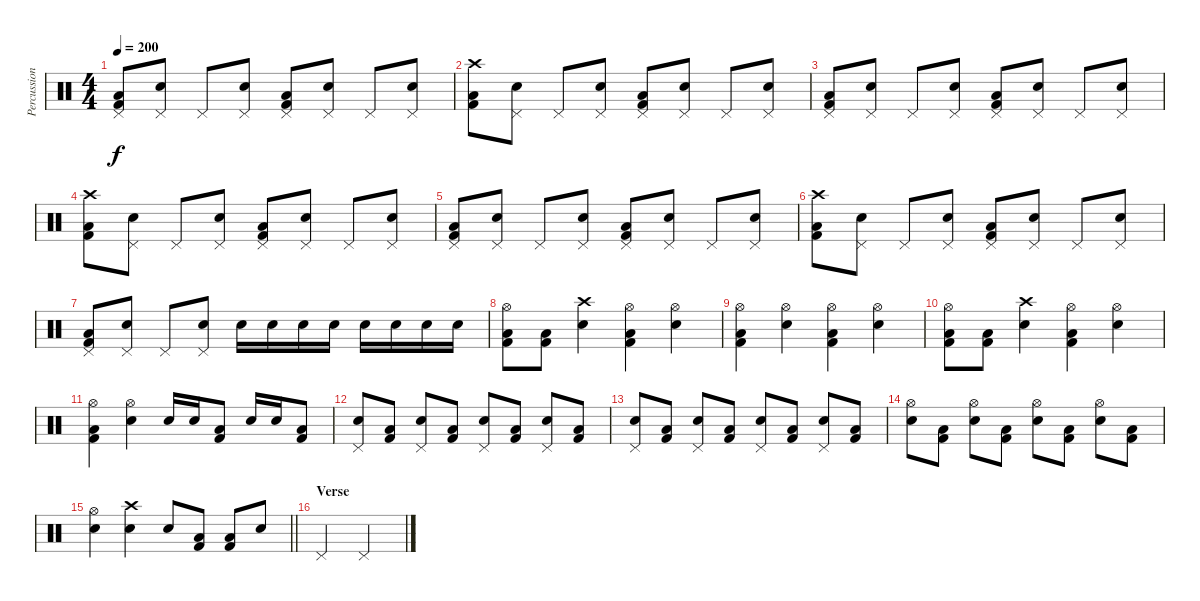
\track ("Percussion" "Percussion") {instrument percussion}
\staff {score}
\articulation defaults
\ts (4 4)
\tempo 200
\clef neutral
\ks c
("Kick (hit) 2" "Low Floor Tom (hit)" "Pedal Hi-Hat (hit)").8{dy f} ("Electric Snare (hit)" "Pedal Hi-Hat (hit)").8 "Pedal Hi-Hat (hit)".8 ("Electric Snare (hit)" "Pedal Hi-Hat (hit)").8 ("Kick (hit) 2" "Low Floor Tom (hit)" "Pedal Hi-Hat (hit)").8 ("Electric Snare (hit)" "Pedal Hi-Hat (hit)").8 "Pedal Hi-Hat (hit)".8 ("Electric Snare (hit)" "Pedal Hi-Hat (hit)").8 |
("Kick (hit) 2" "Low Floor Tom (hit)" "Crash high (hit)").8 ("Electric Snare (hit)" "Pedal Hi-Hat (hit)").8 "Pedal Hi-Hat (hit)".8 ("Electric Snare (hit)" "Pedal Hi-Hat (hit)").8 ("Kick (hit) 2" "Low Floor Tom (hit)" "Pedal Hi-Hat (hit)").8 ("Electric Snare (hit)" "Pedal Hi-Hat (hit)").8 "Pedal Hi-Hat (hit)".8 ("Electric Snare (hit)" "Pedal Hi-Hat (hit)").8 |
("Kick (hit) 2" "Low Floor Tom (hit)" "Pedal Hi-Hat (hit)").8 ("Electric Snare (hit)" "Pedal Hi-Hat (hit)").8 "Pedal Hi-Hat (hit)".8 ("Electric Snare (hit)" "Pedal Hi-Hat (hit)").8 ("Kick (hit) 2" "Low Floor Tom (hit)" "Pedal Hi-Hat (hit)").8 ("Electric Snare (hit)" "Pedal Hi-Hat (hit)").8 "Pedal Hi-Hat (hit)".8 ("Electric Snare (hit)" "Pedal Hi-Hat (hit)").8 |
("Kick (hit) 2" "Low Floor Tom (hit)" "Crash high (hit)").8 ("Electric Snare (hit)" "Pedal Hi-Hat (hit)").8 "Pedal Hi-Hat (hit)".8 ("Electric Snare (hit)" "Pedal Hi-Hat (hit)").8 ("Kick (hit) 2" "Low Floor Tom (hit)" "Pedal Hi-Hat (hit)").8 ("Electric Snare (hit)" "Pedal Hi-Hat (hit)").8 "Pedal Hi-Hat (hit)".8 ("Electric Snare (hit)" "Pedal Hi-Hat (hit)").8 |
("Kick (hit) 2" "Low Floor Tom (hit)" "Pedal Hi-Hat (hit)").8 ("Electric Snare (hit)" "Pedal Hi-Hat (hit)").8 "Pedal Hi-Hat (hit)".8 ("Electric Snare (hit)" "Pedal Hi-Hat (hit)").8 ("Kick (hit) 2" "Low Floor Tom (hit)" "Pedal Hi-Hat (hit)").8 ("Electric Snare (hit)" "Pedal Hi-Hat (hit)").8 "Pedal Hi-Hat (hit)".8 ("Electric Snare (hit)" "Pedal Hi-Hat (hit)").8 |
("Kick (hit) 2" "Low Floor Tom (hit)" "Crash high (hit)").8 ("Electric Snare (hit)" "Pedal Hi-Hat (hit)").8 "Pedal Hi-Hat (hit)".8 ("Electric Snare (hit)" "Pedal Hi-Hat (hit)").8 ("Kick (hit) 2" "Low Floor Tom (hit)" "Pedal Hi-Hat (hit)").8 ("Electric Snare (hit)" "Pedal Hi-Hat (hit)").8 "Pedal Hi-Hat (hit)".8 ("Electric Snare (hit)" "Pedal Hi-Hat (hit)").8 |
("Kick (hit) 2" "Low Floor Tom (hit)" "Pedal Hi-Hat (hit)").8 ("Electric Snare (hit)" "Pedal Hi-Hat (hit)").8 "Pedal Hi-Hat (hit)".8 ("Electric Snare (hit)" "Pedal Hi-Hat (hit)").8 "Electric Snare (hit)".16 "Electric Snare (hit)".16 "Electric Snare (hit)".16 "Electric Snare (hit)".16 "Electric Snare (hit)".16 "Electric Snare (hit)".16 "Electric Snare (hit)".16 "Electric Snare (hit)".16 |
("Kick (hit) 2" "Low Floor Tom (hit)" "Hi-Hat (open)").8 ("Kick (hit) 2" "Low Floor Tom (hit)").8 ("Electric Snare (hit)" "Crash high (hit)").4 ("Kick (hit) 2" "Low Floor Tom (hit)" "Hi-Hat (open)").4 ("Electric Snare (hit)" "Hi-Hat (open)").4 |
("Kick (hit) 2" "Low Floor Tom (hit)" "Hi-Hat (open)").4 ("Electric Snare (hit)" "Hi-Hat (open)").4 ("Kick (hit) 2" "Low Floor Tom (hit)" "Hi-Hat (open)").4 ("Electric Snare (hit)" "Hi-Hat (open)").4 |
("Kick (hit) 2" "Low Floor Tom (hit)" "Hi-Hat (open)").8 ("Kick (hit) 2" "Low Floor Tom (hit)").8 ("Electric Snare (hit)" "Crash high (hit)").4 ("Kick (hit) 2" "Low Floor Tom (hit)" "Hi-Hat (open)").4 ("Electric Snare (hit)" "Hi-Hat (open)").4 |
("Kick (hit) 2" "Low Floor Tom (hit)" "Hi-Hat (open)").4 ("Electric Snare (hit)" "Hi-Hat (open)").4 "Electric Snare (hit)".16 "Electric Snare (hit)".16 ("Kick (hit) 2" "Low Floor Tom (hit)").8 "Electric Snare (hit)".16 "Electric Snare (hit)".16 ("Kick (hit) 2" "Low Floor Tom (hit)").8 |
("Electric Snare (hit)" "Pedal Hi-Hat (hit)").8 ("Kick (hit) 2" "Low Floor Tom (hit)").8 ("Electric Snare (hit)" "Pedal Hi-Hat (hit)").8 ("Kick (hit) 2" "Low Floor Tom (hit)").8 ("Electric Snare (hit)" "Pedal Hi-Hat (hit)").8 ("Kick (hit) 2" "Low Floor Tom (hit)").8 ("Electric Snare (hit)" "Pedal Hi-Hat (hit)").8 ("Kick (hit) 2" "Low Floor Tom (hit)").8 |
("Electric Snare (hit)" "Pedal Hi-Hat (hit)").8 ("Kick (hit) 2" "Low Floor Tom (hit)").8 ("Electric Snare (hit)" "Pedal Hi-Hat (hit)").8 ("Kick (hit) 2" "Low Floor Tom (hit)").8 ("Electric Snare (hit)" "Pedal Hi-Hat (hit)").8 ("Kick (hit) 2" "Low Floor Tom (hit)").8 ("Electric Snare (hit)" "Pedal Hi-Hat (hit)").8 ("Kick (hit) 2" "Low Floor Tom (hit)").8 |
("Electric Snare (hit)" "Hi-Hat (open)").8 ("Kick (hit) 2" "Low Floor Tom (hit)").8 ("Electric Snare (hit)" "Hi-Hat (open)").8 ("Kick (hit) 2" "Low Floor Tom (hit)").8 ("Electric Snare (hit)" "Hi-Hat (open)").8 ("Kick (hit) 2" "Low Floor Tom (hit)").8 ("Electric Snare (hit)" "Hi-Hat (open)").8 ("Kick (hit) 2" "Low Floor Tom (hit)").8 |
\barLineRight lightlight
("Electric Snare (hit)" "Hi-Hat (open)").4 ("Electric Snare (hit)" "Crash high (hit)").4 "Electric Snare (hit)".8 ("Kick (hit) 2" "Low Floor Tom (hit)").8 ("Kick (hit) 2" "Low Floor Tom (hit)").8 "Electric Snare (hit)".8 |
\section ("" "Verse")
"Pedal Hi-Hat (hit)".2 "Pedal Hi-Hat (hit)".2
